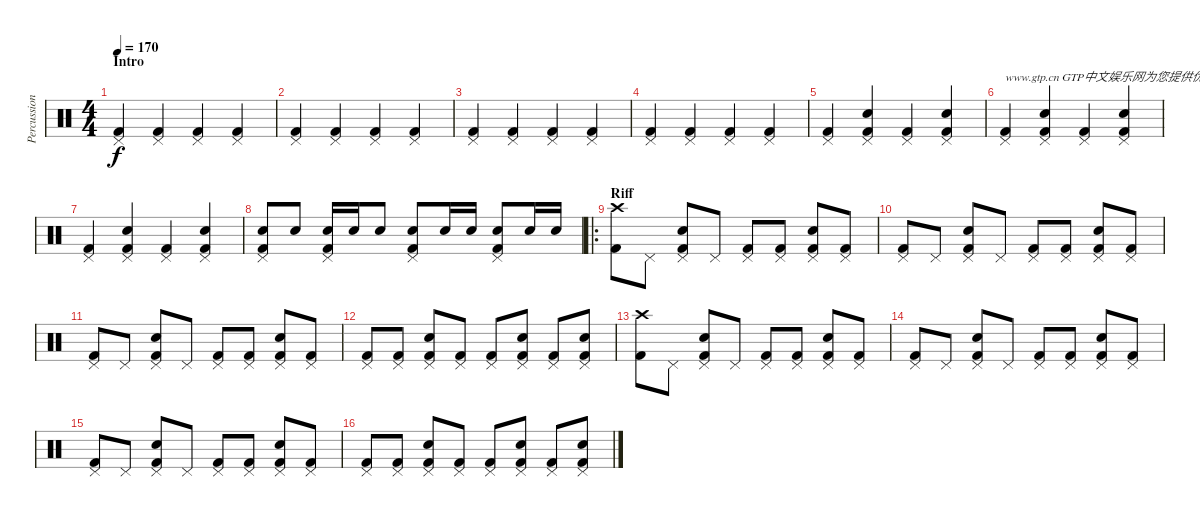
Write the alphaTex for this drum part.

\track ("Percussion" "Percussion") {instrument percussion}
\staff {score}
\articulation defaults
\ts (4 4)
\section ("" "Intro")
\tempo 170
\clef neutral
\ks c
("Pedal Hi-Hat (hit)" "Kick (hit) 2").4{dy f} ("Pedal Hi-Hat (hit)" "Kick (hit) 2").4 ("Pedal Hi-Hat (hit)" "Kick (hit) 2").4 ("Pedal Hi-Hat (hit)" "Kick (hit) 2").4 |
("Pedal Hi-Hat (hit)" "Kick (hit) 2").4 ("Pedal Hi-Hat (hit)" "Kick (hit) 2").4 ("Pedal Hi-Hat (hit)" "Kick (hit) 2").4 ("Pedal Hi-Hat (hit)" "Kick (hit) 2").4 |
("Pedal Hi-Hat (hit)" "Kick (hit) 2").4 ("Pedal Hi-Hat (hit)" "Kick (hit) 2").4 ("Pedal Hi-Hat (hit)" "Kick (hit) 2").4 ("Pedal Hi-Hat (hit)" "Kick (hit) 2").4 |
("Pedal Hi-Hat (hit)" "Kick (hit) 2").4 ("Pedal Hi-Hat (hit)" "Kick (hit) 2").4 ("Pedal Hi-Hat (hit)" "Kick (hit) 2").4 ("Pedal Hi-Hat (hit)" "Kick (hit) 2").4 |
("Pedal Hi-Hat (hit)" "Kick (hit) 2").4 ("Pedal Hi-Hat (hit)" "Electric Snare (hit)" "Kick (hit) 2").4 ("Pedal Hi-Hat (hit)" "Kick (hit) 2").4 ("Pedal Hi-Hat (hit)" "Electric Snare (hit)" "Kick (hit) 2").4 |
("Pedal Hi-Hat (hit)" "Kick (hit) 2").4{txt "www.gtp.cn GTP中文娱乐网为您提供优秀的谱子"} ("Pedal Hi-Hat (hit)" "Electric Snare (hit)" "Kick (hit) 2").4 ("Pedal Hi-Hat (hit)" "Kick (hit) 2").4 ("Pedal Hi-Hat (hit)" "Electric Snare (hit)" "Kick (hit) 2").4 |
("Pedal Hi-Hat (hit)" "Kick (hit) 2").4 ("Pedal Hi-Hat (hit)" "Electric Snare (hit)" "Kick (hit) 2").4 ("Pedal Hi-Hat (hit)" "Kick (hit) 2").4 ("Pedal Hi-Hat (hit)" "Electric Snare (hit)" "Kick (hit) 2").4 |
("Pedal Hi-Hat (hit)" "Electric Snare (hit)" "Kick (hit) 2").8 "Electric Snare (hit)".8 ("Pedal Hi-Hat (hit)" "Electric Snare (hit)" "Kick (hit) 2").16 "Electric Snare (hit)".16 "Electric Snare (hit)".8 ("Pedal Hi-Hat (hit)" "Electric Snare (hit)" "Kick (hit) 2").8 "Electric Snare (hit)".16 "Electric Snare (hit)".16 ("Pedal Hi-Hat (hit)" "Electric Snare (hit)" "Kick (hit) 2").8 "Electric Snare (hit)".16 "Electric Snare (hit)".16 |
\ro
\section ("" "Riff")
("Crash high (hit)" "Kick (hit) 2").8 "Pedal Hi-Hat (hit)".8 ("Pedal Hi-Hat (hit)" "Electric Snare (hit)" "Kick (hit) 2").8 "Pedal Hi-Hat (hit)".8 ("Pedal Hi-Hat (hit)" "Kick (hit) 2").8 ("Pedal Hi-Hat (hit)" "Kick (hit) 2").8 ("Pedal Hi-Hat (hit)" "Electric Snare (hit)" "Kick (hit) 2").8 ("Pedal Hi-Hat (hit)" "Kick (hit) 2").8 |
("Pedal Hi-Hat (hit)" "Kick (hit) 2").8 "Pedal Hi-Hat (hit)".8 ("Pedal Hi-Hat (hit)" "Electric Snare (hit)" "Kick (hit) 2").8 "Pedal Hi-Hat (hit)".8 ("Pedal Hi-Hat (hit)" "Kick (hit) 2").8 ("Pedal Hi-Hat (hit)" "Kick (hit) 2").8 ("Pedal Hi-Hat (hit)" "Electric Snare (hit)" "Kick (hit) 2").8 ("Pedal Hi-Hat (hit)" "Kick (hit) 2").8 |
("Pedal Hi-Hat (hit)" "Kick (hit) 2").8 "Pedal Hi-Hat (hit)".8 ("Pedal Hi-Hat (hit)" "Electric Snare (hit)" "Kick (hit) 2").8 "Pedal Hi-Hat (hit)".8 ("Pedal Hi-Hat (hit)" "Kick (hit) 2").8 ("Pedal Hi-Hat (hit)" "Kick (hit) 2").8 ("Pedal Hi-Hat (hit)" "Electric Snare (hit)" "Kick (hit) 2").8 ("Pedal Hi-Hat (hit)" "Kick (hit) 2").8 |
("Pedal Hi-Hat (hit)" "Kick (hit) 2").8 ("Pedal Hi-Hat (hit)" "Kick (hit) 2").8 ("Pedal Hi-Hat (hit)" "Electric Snare (hit)" "Kick (hit) 2").8 ("Pedal Hi-Hat (hit)" "Kick (hit) 2").8 ("Pedal Hi-Hat (hit)" "Kick (hit) 2").8 ("Pedal Hi-Hat (hit)" "Electric Snare (hit)" "Kick (hit) 2").8 ("Pedal Hi-Hat (hit)" "Kick (hit) 2").8 ("Pedal Hi-Hat (hit)" "Electric Snare (hit)" "Kick (hit) 2").8 |
("Crash high (hit)" "Kick (hit) 2").8 "Pedal Hi-Hat (hit)".8 ("Pedal Hi-Hat (hit)" "Electric Snare (hit)" "Kick (hit) 2").8 "Pedal Hi-Hat (hit)".8 ("Pedal Hi-Hat (hit)" "Kick (hit) 2").8 ("Pedal Hi-Hat (hit)" "Kick (hit) 2").8 ("Pedal Hi-Hat (hit)" "Electric Snare (hit)" "Kick (hit) 2").8 ("Pedal Hi-Hat (hit)" "Kick (hit) 2").8 |
("Pedal Hi-Hat (hit)" "Kick (hit) 2").8 "Pedal Hi-Hat (hit)".8 ("Pedal Hi-Hat (hit)" "Electric Snare (hit)" "Kick (hit) 2").8 "Pedal Hi-Hat (hit)".8 ("Pedal Hi-Hat (hit)" "Kick (hit) 2").8 ("Pedal Hi-Hat (hit)" "Kick (hit) 2").8 ("Pedal Hi-Hat (hit)" "Electric Snare (hit)" "Kick (hit) 2").8 ("Pedal Hi-Hat (hit)" "Kick (hit) 2").8 |
("Pedal Hi-Hat (hit)" "Kick (hit) 2").8 "Pedal Hi-Hat (hit)".8 ("Pedal Hi-Hat (hit)" "Electric Snare (hit)" "Kick (hit) 2").8 "Pedal Hi-Hat (hit)".8 ("Pedal Hi-Hat (hit)" "Kick (hit) 2").8 ("Pedal Hi-Hat (hit)" "Kick (hit) 2").8 ("Pedal Hi-Hat (hit)" "Electric Snare (hit)" "Kick (hit) 2").8 ("Pedal Hi-Hat (hit)" "Kick (hit) 2").8 |
("Pedal Hi-Hat (hit)" "Kick (hit) 2").8 ("Pedal Hi-Hat (hit)" "Kick (hit) 2").8 ("Pedal Hi-Hat (hit)" "Electric Snare (hit)" "Kick (hit) 2").8 ("Pedal Hi-Hat (hit)" "Kick (hit) 2").8 ("Pedal Hi-Hat (hit)" "Kick (hit) 2").8 ("Pedal Hi-Hat (hit)" "Electric Snare (hit)" "Kick (hit) 2").8 ("Pedal Hi-Hat (hit)" "Kick (hit) 2").8 ("Pedal Hi-Hat (hit)" "Electric Snare (hit)" "Kick (hit) 2").8
